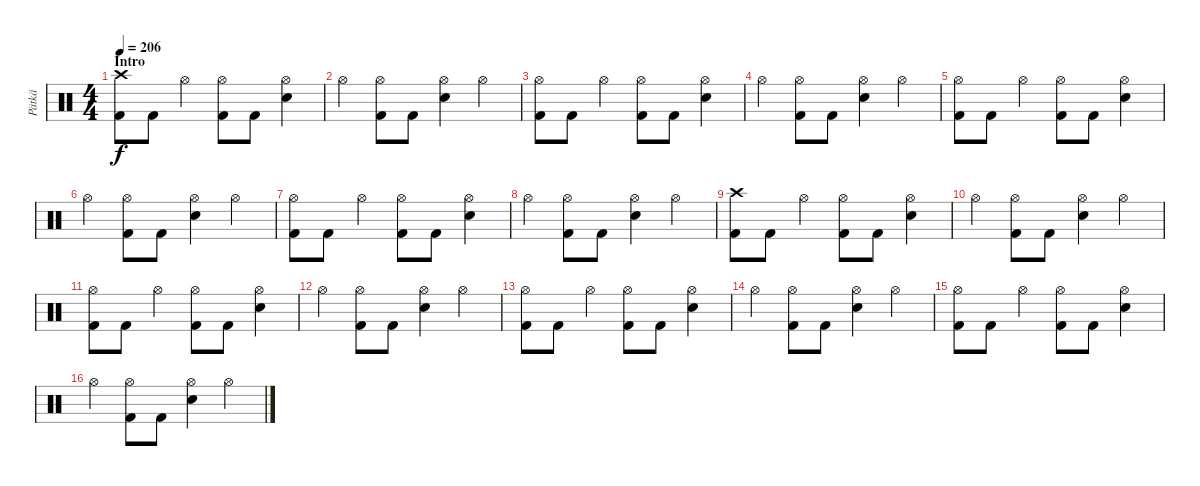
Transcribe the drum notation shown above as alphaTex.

\track ("Pätkä" "Pätkä") {instrument percussion}
\staff {score}
\articulation defaults
\ts (4 4)
\section ("" "Intro")
\tempo 206
\clef neutral
\ks c
("Crash high (hit)" "Kick (hit) 2").8{dy f} "Kick (hit) 2".8 "Hi-Hat (open)".4 ("Hi-Hat (open)" "Kick (hit) 2").8 "Kick (hit) 2".8 ("Hi-Hat (open)" "Electric Snare (hit)").4 |
"Hi-Hat (open)".4 ("Hi-Hat (open)" "Kick (hit) 2").8 "Kick (hit) 2".8 ("Hi-Hat (open)" "Electric Snare (hit)").4 "Hi-Hat (open)".4 |
("Hi-Hat (open)" "Kick (hit) 2").8 "Kick (hit) 2".8 "Hi-Hat (open)".4 ("Hi-Hat (open)" "Kick (hit) 2").8 "Kick (hit) 2".8 ("Hi-Hat (open)" "Electric Snare (hit)").4 |
"Hi-Hat (open)".4 ("Hi-Hat (open)" "Kick (hit) 2").8 "Kick (hit) 2".8 ("Hi-Hat (open)" "Electric Snare (hit)").4 "Hi-Hat (open)".4 |
("Hi-Hat (open)" "Kick (hit) 2").8 "Kick (hit) 2".8 "Hi-Hat (open)".4 ("Hi-Hat (open)" "Kick (hit) 2").8 "Kick (hit) 2".8 ("Hi-Hat (open)" "Electric Snare (hit)").4 |
"Hi-Hat (open)".4 ("Hi-Hat (open)" "Kick (hit) 2").8 "Kick (hit) 2".8 ("Hi-Hat (open)" "Electric Snare (hit)").4 "Hi-Hat (open)".4 |
("Hi-Hat (open)" "Kick (hit) 2").8 "Kick (hit) 2".8 "Hi-Hat (open)".4 ("Hi-Hat (open)" "Kick (hit) 2").8 "Kick (hit) 2".8 ("Hi-Hat (open)" "Electric Snare (hit)").4 |
"Hi-Hat (open)".4 ("Hi-Hat (open)" "Kick (hit) 2").8 "Kick (hit) 2".8 ("Hi-Hat (open)" "Electric Snare (hit)").4 "Hi-Hat (open)".4 |
("Crash high (hit)" "Kick (hit) 2").8 "Kick (hit) 2".8 "Hi-Hat (open)".4 ("Hi-Hat (open)" "Kick (hit) 2").8 "Kick (hit) 2".8 ("Hi-Hat (open)" "Electric Snare (hit)").4 |
"Hi-Hat (open)".4 ("Hi-Hat (open)" "Kick (hit) 2").8 "Kick (hit) 2".8 ("Hi-Hat (open)" "Electric Snare (hit)").4 "Hi-Hat (open)".4 |
("Hi-Hat (open)" "Kick (hit) 2").8 "Kick (hit) 2".8 "Hi-Hat (open)".4 ("Hi-Hat (open)" "Kick (hit) 2").8 "Kick (hit) 2".8 ("Hi-Hat (open)" "Electric Snare (hit)").4 |
"Hi-Hat (open)".4 ("Hi-Hat (open)" "Kick (hit) 2").8 "Kick (hit) 2".8 ("Hi-Hat (open)" "Electric Snare (hit)").4 "Hi-Hat (open)".4 |
("Hi-Hat (open)" "Kick (hit) 2").8 "Kick (hit) 2".8 "Hi-Hat (open)".4 ("Hi-Hat (open)" "Kick (hit) 2").8 "Kick (hit) 2".8 ("Hi-Hat (open)" "Electric Snare (hit)").4 |
"Hi-Hat (open)".4 ("Hi-Hat (open)" "Kick (hit) 2").8 "Kick (hit) 2".8 ("Hi-Hat (open)" "Electric Snare (hit)").4 "Hi-Hat (open)".4 |
("Hi-Hat (open)" "Kick (hit) 2").8 "Kick (hit) 2".8 "Hi-Hat (open)".4 ("Hi-Hat (open)" "Kick (hit) 2").8 "Kick (hit) 2".8 ("Hi-Hat (open)" "Electric Snare (hit)").4 |
"Hi-Hat (open)".4 ("Hi-Hat (open)" "Kick (hit) 2").8 "Kick (hit) 2".8 ("Hi-Hat (open)" "Electric Snare (hit)").4 "Hi-Hat (open)".4
